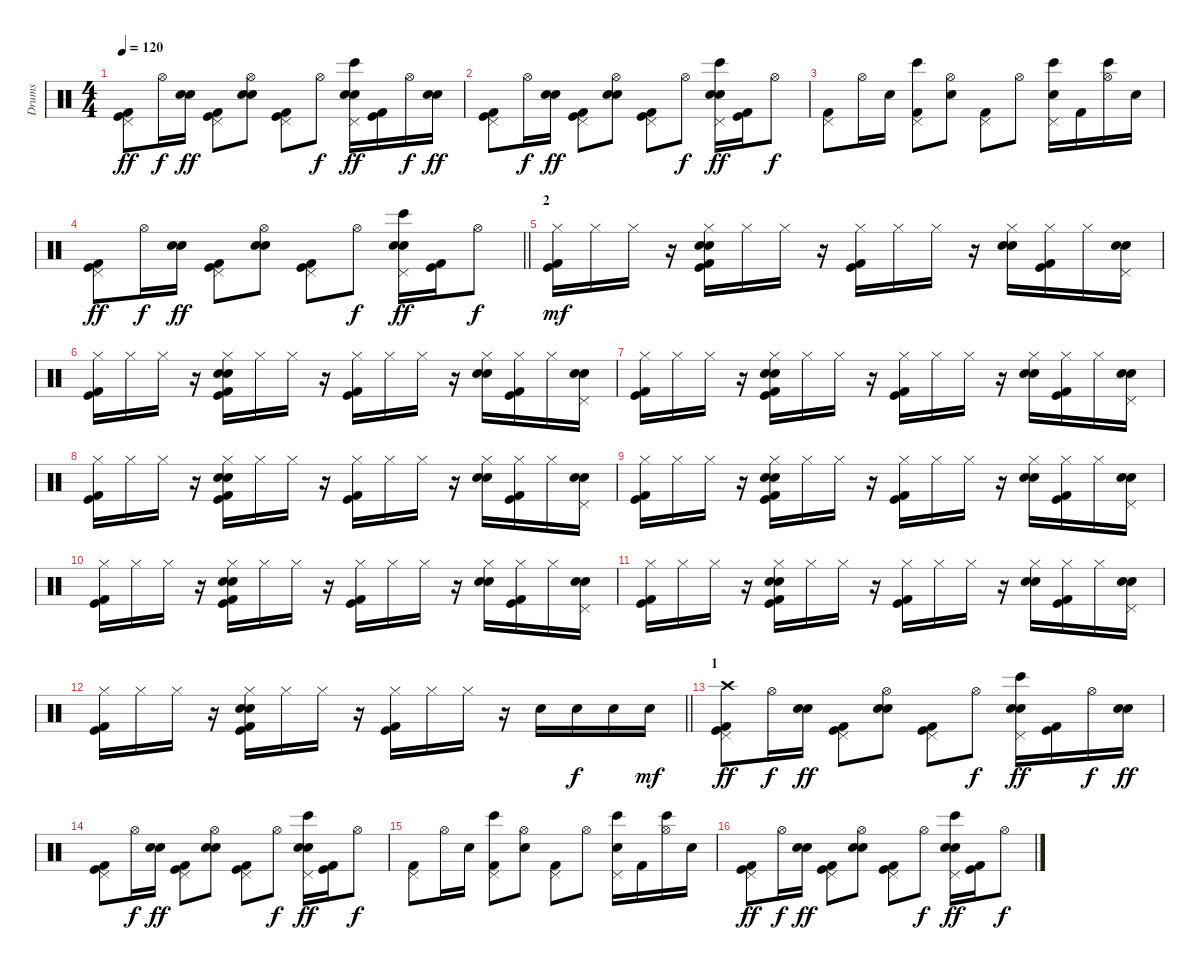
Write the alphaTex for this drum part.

\track ("Drums" "Drums") {instrument percussion}
\staff {score}
\articulation defaults
\ts (4 4)
\tempo 120
\clef neutral
\ks c
("Pedal Hi-Hat (hit)" "Kick (hit)" "Kick (hit) 2").8{dy ff} "Hi-Hat (open)".16{dy f} ("Snare (hit) 2" "Electric Snare (hit)").16{dy ff} ("Pedal Hi-Hat (hit)" "Kick (hit)" "Kick (hit) 2").8 ("Hi-Hat (open)" "Snare (hit) 2" "Electric Snare (hit)").8 ("Pedal Hi-Hat (hit)" "Kick (hit)" "Kick (hit) 2").8 "Hi-Hat (open)".8{dy f} ("Pedal Hi-Hat (hit)" "Bongo High (hit)" "Snare (hit) 2" "Electric Snare (hit)").16{dy ff} ("Kick (hit)" "Kick (hit) 2").16 "Hi-Hat (open)".16{dy f} ("Snare (hit) 2" "Electric Snare (hit)").16{dy ff} |
("Pedal Hi-Hat (hit)" "Kick (hit)" "Kick (hit) 2").8 "Hi-Hat (open)".16{dy f} ("Snare (hit) 2" "Electric Snare (hit)").16{dy ff} ("Pedal Hi-Hat (hit)" "Kick (hit)" "Kick (hit) 2").8 ("Hi-Hat (open)" "Snare (hit) 2" "Electric Snare (hit)").8 ("Pedal Hi-Hat (hit)" "Kick (hit)" "Kick (hit) 2").8 "Hi-Hat (open)".8{dy f} ("Pedal Hi-Hat (hit)" "Bongo High (hit)" "Snare (hit) 2" "Electric Snare (hit)").16{dy ff} ("Kick (hit)" "Kick (hit) 2").16 "Hi-Hat (open)".8{dy f} |
("Pedal Hi-Hat (hit)" "Kick (hit) 2").8 "Hi-Hat (open)".16 "Snare (hit) 2".16 ("Pedal Hi-Hat (hit)" "Bongo High (hit)" "Kick (hit) 2").8 ("Hi-Hat (open)" "Snare (hit) 2").8 ("Pedal Hi-Hat (hit)" "Kick (hit) 2").8 "Hi-Hat (open)".8 ("Pedal Hi-Hat (hit)" "Bongo High (hit)" "Snare (hit) 2").16 "Kick (hit) 2".16 ("Hi-Hat (open)" "Bongo High (hit)").16 "Snare (hit) 2".16 |
\barLineRight lightlight
("Pedal Hi-Hat (hit)" "Kick (hit)" "Kick (hit) 2").8{dy ff} "Hi-Hat (open)".16{dy f} ("Snare (hit) 2" "Electric Snare (hit)").16{dy ff} ("Pedal Hi-Hat (hit)" "Kick (hit)" "Kick (hit) 2").8 ("Hi-Hat (open)" "Snare (hit) 2" "Electric Snare (hit)").8 ("Pedal Hi-Hat (hit)" "Kick (hit)" "Kick (hit) 2").8 "Hi-Hat (open)".8{dy f} ("Pedal Hi-Hat (hit)" "Bongo High (hit)" "Snare (hit) 2" "Electric Snare (hit)").16{dy ff} ("Kick (hit)" "Kick (hit) 2").16 "Hi-Hat (open)".8{dy f} |
\section ("" "2")
("Hi-Hat (closed)" "Kick (hit)" "Kick (hit) 2").16{dy mf} "Hi-Hat (closed)".16 "Hi-Hat (closed)".16 r.16 ("Hi-Hat (closed)" "Electric Snare (hit)" "Snare (hit) 2" "Kick (hit)" "Kick (hit) 2").16 "Hi-Hat (closed)".16 "Hi-Hat (closed)".16 r.16 ("Hi-Hat (closed)" "Kick (hit)" "Kick (hit) 2").16 "Hi-Hat (closed)".16 "Hi-Hat (closed)".16 r.16 ("Hi-Hat (closed)" "Electric Snare (hit)" "Snare (hit) 2").16 ("Hi-Hat (closed)" "Kick (hit) 2" "Kick (hit)").16 "Hi-Hat (closed)".16 ("Pedal Hi-Hat (hit)" "Electric Snare (hit)" "Snare (hit) 2").16 |
("Hi-Hat (closed)" "Kick (hit)" "Kick (hit) 2").16 "Hi-Hat (closed)".16 "Hi-Hat (closed)".16 r.16 ("Hi-Hat (closed)" "Electric Snare (hit)" "Snare (hit) 2" "Kick (hit)" "Kick (hit) 2").16 "Hi-Hat (closed)".16 "Hi-Hat (closed)".16 r.16 ("Hi-Hat (closed)" "Kick (hit)" "Kick (hit) 2").16 "Hi-Hat (closed)".16 "Hi-Hat (closed)".16 r.16 ("Hi-Hat (closed)" "Electric Snare (hit)" "Snare (hit) 2").16 ("Hi-Hat (closed)" "Kick (hit) 2" "Kick (hit)").16 "Hi-Hat (closed)".16 ("Pedal Hi-Hat (hit)" "Electric Snare (hit)" "Snare (hit) 2").16 |
("Hi-Hat (closed)" "Kick (hit)" "Kick (hit) 2").16 "Hi-Hat (closed)".16 "Hi-Hat (closed)".16 r.16 ("Hi-Hat (closed)" "Electric Snare (hit)" "Snare (hit) 2" "Kick (hit)" "Kick (hit) 2").16 "Hi-Hat (closed)".16 "Hi-Hat (closed)".16 r.16 ("Hi-Hat (closed)" "Kick (hit)" "Kick (hit) 2").16 "Hi-Hat (closed)".16 "Hi-Hat (closed)".16 r.16 ("Hi-Hat (closed)" "Electric Snare (hit)" "Snare (hit) 2").16 ("Hi-Hat (closed)" "Kick (hit) 2" "Kick (hit)").16 "Hi-Hat (closed)".16 ("Pedal Hi-Hat (hit)" "Electric Snare (hit)" "Snare (hit) 2").16 |
("Hi-Hat (closed)" "Kick (hit)" "Kick (hit) 2").16 "Hi-Hat (closed)".16 "Hi-Hat (closed)".16 r.16 ("Hi-Hat (closed)" "Electric Snare (hit)" "Snare (hit) 2" "Kick (hit)" "Kick (hit) 2").16 "Hi-Hat (closed)".16 "Hi-Hat (closed)".16 r.16 ("Hi-Hat (closed)" "Kick (hit)" "Kick (hit) 2").16 "Hi-Hat (closed)".16 "Hi-Hat (closed)".16 r.16 ("Hi-Hat (closed)" "Electric Snare (hit)" "Snare (hit) 2").16 ("Hi-Hat (closed)" "Kick (hit) 2" "Kick (hit)").16 "Hi-Hat (closed)".16 ("Pedal Hi-Hat (hit)" "Electric Snare (hit)" "Snare (hit) 2").16 |
("Hi-Hat (closed)" "Kick (hit)" "Kick (hit) 2").16 "Hi-Hat (closed)".16 "Hi-Hat (closed)".16 r.16 ("Hi-Hat (closed)" "Electric Snare (hit)" "Snare (hit) 2" "Kick (hit)" "Kick (hit) 2").16 "Hi-Hat (closed)".16 "Hi-Hat (closed)".16 r.16 ("Hi-Hat (closed)" "Kick (hit)" "Kick (hit) 2").16 "Hi-Hat (closed)".16 "Hi-Hat (closed)".16 r.16 ("Hi-Hat (closed)" "Electric Snare (hit)" "Snare (hit) 2").16 ("Hi-Hat (closed)" "Kick (hit) 2" "Kick (hit)").16 "Hi-Hat (closed)".16 ("Pedal Hi-Hat (hit)" "Electric Snare (hit)" "Snare (hit) 2").16 |
("Hi-Hat (closed)" "Kick (hit)" "Kick (hit) 2").16 "Hi-Hat (closed)".16 "Hi-Hat (closed)".16 r.16 ("Hi-Hat (closed)" "Electric Snare (hit)" "Snare (hit) 2" "Kick (hit)" "Kick (hit) 2").16 "Hi-Hat (closed)".16 "Hi-Hat (closed)".16 r.16 ("Hi-Hat (closed)" "Kick (hit)" "Kick (hit) 2").16 "Hi-Hat (closed)".16 "Hi-Hat (closed)".16 r.16 ("Hi-Hat (closed)" "Electric Snare (hit)" "Snare (hit) 2").16 ("Hi-Hat (closed)" "Kick (hit) 2" "Kick (hit)").16 "Hi-Hat (closed)".16 ("Pedal Hi-Hat (hit)" "Electric Snare (hit)" "Snare (hit) 2").16 |
("Hi-Hat (closed)" "Kick (hit)" "Kick (hit) 2").16 "Hi-Hat (closed)".16 "Hi-Hat (closed)".16 r.16 ("Hi-Hat (closed)" "Electric Snare (hit)" "Snare (hit) 2" "Kick (hit)" "Kick (hit) 2").16 "Hi-Hat (closed)".16 "Hi-Hat (closed)".16 r.16 ("Hi-Hat (closed)" "Kick (hit)" "Kick (hit) 2").16 "Hi-Hat (closed)".16 "Hi-Hat (closed)".16 r.16 ("Hi-Hat (closed)" "Electric Snare (hit)" "Snare (hit) 2").16 ("Hi-Hat (closed)" "Kick (hit) 2" "Kick (hit)").16 "Hi-Hat (closed)".16 ("Pedal Hi-Hat (hit)" "Electric Snare (hit)" "Snare (hit) 2").16 |
\barLineRight lightlight
("Hi-Hat (closed)" "Kick (hit)" "Kick (hit) 2").16 "Hi-Hat (closed)".16 "Hi-Hat (closed)".16 r.16 ("Hi-Hat (closed)" "Electric Snare (hit)" "Snare (hit) 2" "Kick (hit)" "Kick (hit) 2").16 "Hi-Hat (closed)".16 "Hi-Hat (closed)".16 r.16 ("Hi-Hat (closed)" "Kick (hit)" "Kick (hit) 2").16 "Hi-Hat (closed)".16 "Hi-Hat (closed)".16 r.16 "Snare (hit) 2".16 "Snare (hit) 2".16{dy f} "Snare (hit) 2".16 "Snare (hit) 2".16{dy mf} |
\section ("" "1")
("Crash high (hit)" "Pedal Hi-Hat (hit)" "Kick (hit)" "Kick (hit) 2").8{dy ff} "Hi-Hat (open)".16{dy f} ("Snare (hit) 2" "Electric Snare (hit)").16{dy ff} ("Pedal Hi-Hat (hit)" "Kick (hit)" "Kick (hit) 2").8 ("Hi-Hat (open)" "Snare (hit) 2" "Electric Snare (hit)").8 ("Pedal Hi-Hat (hit)" "Kick (hit)" "Kick (hit) 2").8 "Hi-Hat (open)".8{dy f} ("Pedal Hi-Hat (hit)" "Bongo High (hit)" "Snare (hit) 2" "Electric Snare (hit)").16{dy ff} ("Kick (hit)" "Kick (hit) 2").16 "Hi-Hat (open)".16{dy f} ("Snare (hit) 2" "Electric Snare (hit)").16{dy ff} |
("Pedal Hi-Hat (hit)" "Kick (hit)" "Kick (hit) 2").8 "Hi-Hat (open)".16{dy f} ("Snare (hit) 2" "Electric Snare (hit)").16{dy ff} ("Pedal Hi-Hat (hit)" "Kick (hit)" "Kick (hit) 2").8 ("Hi-Hat (open)" "Snare (hit) 2" "Electric Snare (hit)").8 ("Pedal Hi-Hat (hit)" "Kick (hit)" "Kick (hit) 2").8 "Hi-Hat (open)".8{dy f} ("Pedal Hi-Hat (hit)" "Bongo High (hit)" "Snare (hit) 2" "Electric Snare (hit)").16{dy ff} ("Kick (hit)" "Kick (hit) 2").16 "Hi-Hat (open)".8{dy f} |
("Pedal Hi-Hat (hit)" "Kick (hit) 2").8 "Hi-Hat (open)".16 "Snare (hit) 2".16 ("Pedal Hi-Hat (hit)" "Bongo High (hit)" "Kick (hit) 2").8 ("Hi-Hat (open)" "Snare (hit) 2").8 ("Pedal Hi-Hat (hit)" "Kick (hit) 2").8 "Hi-Hat (open)".8 ("Pedal Hi-Hat (hit)" "Bongo High (hit)" "Snare (hit) 2").16 "Kick (hit) 2".16 ("Hi-Hat (open)" "Bongo High (hit)").16 "Snare (hit) 2".16 |
("Pedal Hi-Hat (hit)" "Kick (hit)" "Kick (hit) 2").8{dy ff} "Hi-Hat (open)".16{dy f} ("Snare (hit) 2" "Electric Snare (hit)").16{dy ff} ("Pedal Hi-Hat (hit)" "Kick (hit)" "Kick (hit) 2").8 ("Hi-Hat (open)" "Snare (hit) 2" "Electric Snare (hit)").8 ("Pedal Hi-Hat (hit)" "Kick (hit)" "Kick (hit) 2").8 "Hi-Hat (open)".8{dy f} ("Pedal Hi-Hat (hit)" "Bongo High (hit)" "Snare (hit) 2" "Electric Snare (hit)").16{dy ff} ("Kick (hit)" "Kick (hit) 2").16 "Hi-Hat (open)".8{dy f}
